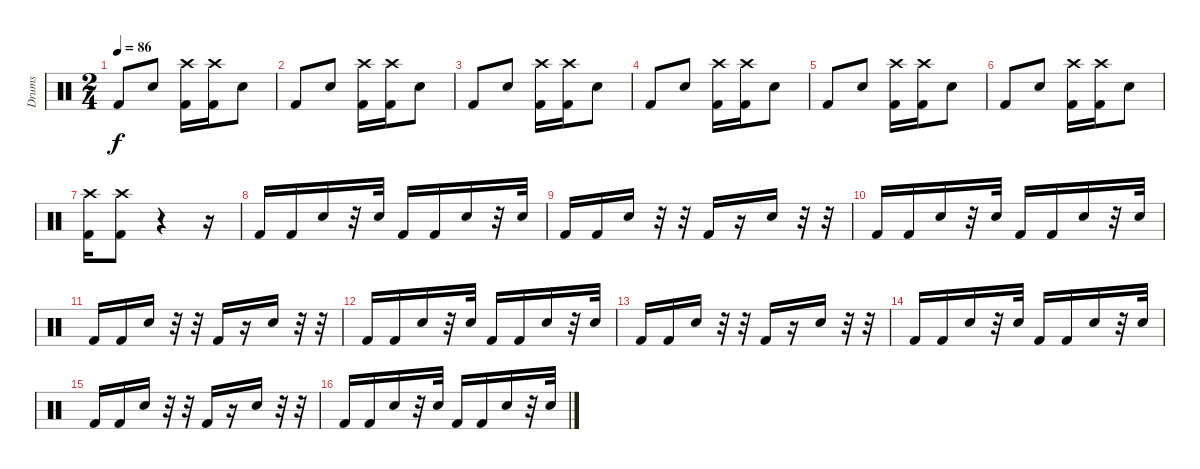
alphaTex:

\track ("Drums" "Drums") {instrument percussion}
\staff {score}
\articulation defaults
\ts (2 4)
\tempo 86
\clef neutral
\ks c "Kick (hit) 2".8{dy f} "Snare (hit) 2".8
("Crash high (hit)" "Kick (hit) 2").16 ("Crash high (hit)" "Kick (hit) 2").16 "Snare (hit) 2".8 |
"Kick (hit) 2".8 "Snare (hit) 2".8 ("Crash high (hit)" "Kick (hit) 2").16 ("Crash high (hit)" "Kick (hit) 2").16 "Snare (hit) 2".8 |
"Kick (hit) 2".8 "Snare (hit) 2".8 ("Crash high (hit)" "Kick (hit) 2").16 ("Crash high (hit)" "Kick (hit) 2").16 "Snare (hit) 2".8 |
"Kick (hit) 2".8 "Snare (hit) 2".8 ("Crash high (hit)" "Kick (hit) 2").16 ("Crash high (hit)" "Kick (hit) 2").16 "Snare (hit) 2".8 |
"Kick (hit) 2".8 "Snare (hit) 2".8 ("Crash high (hit)" "Kick (hit) 2").16 ("Crash high (hit)" "Kick (hit) 2").16 "Snare (hit) 2".8 |
"Kick (hit) 2".8 "Snare (hit) 2".8 ("Crash high (hit)" "Kick (hit) 2").16 ("Crash high (hit)" "Kick (hit) 2").16 "Snare (hit) 2".8 |
("Crash high (hit)" "Kick (hit) 2").16 ("Crash high (hit)" "Kick (hit) 2").8 r.4 r.16 |
"Kick (hit) 2".16 "Kick (hit) 2".16 "Snare (hit) 2".16 r.32 "Snare (hit) 2".32 "Kick (hit) 2".16 "Kick (hit) 2".16 "Snare (hit) 2".16 r.32 "Snare (hit) 2".32 |
"Kick (hit) 2".16 "Kick (hit) 2".16 "Snare (hit) 2".16 r.32 r.32 "Kick (hit) 2".16 r.16 "Snare (hit) 2".16 r.32 r.32 |
"Kick (hit) 2".16 "Kick (hit) 2".16 "Snare (hit) 2".16 r.32 "Snare (hit) 2".32 "Kick (hit) 2".16 "Kick (hit) 2".16 "Snare (hit) 2".16 r.32 "Snare (hit) 2".32 |
"Kick (hit) 2".16 "Kick (hit) 2".16 "Snare (hit) 2".16 r.32 r.32 "Kick (hit) 2".16 r.16 "Snare (hit) 2".16 r.32 r.32 |
"Kick (hit) 2".16 "Kick (hit) 2".16 "Snare (hit) 2".16 r.32 "Snare (hit) 2".32 "Kick (hit) 2".16 "Kick (hit) 2".16 "Snare (hit) 2".16 r.32 "Snare (hit) 2".32 |
"Kick (hit) 2".16 "Kick (hit) 2".16 "Snare (hit) 2".16 r.32 r.32 "Kick (hit) 2".16 r.16 "Snare (hit) 2".16 r.32 r.32 |
"Kick (hit) 2".16 "Kick (hit) 2".16 "Snare (hit) 2".16 r.32 "Snare (hit) 2".32 "Kick (hit) 2".16 "Kick (hit) 2".16 "Snare (hit) 2".16 r.32 "Snare (hit) 2".32 |
"Kick (hit) 2".16 "Kick (hit) 2".16 "Snare (hit) 2".16 r.32 r.32 "Kick (hit) 2".16 r.16 "Snare (hit) 2".16 r.32 r.32 |
"Kick (hit) 2".16 "Kick (hit) 2".16 "Snare (hit) 2".16 r.32 "Snare (hit) 2".32 "Kick (hit) 2".16 "Kick (hit) 2".16 "Snare (hit) 2".16 r.32 "Snare (hit) 2".32
